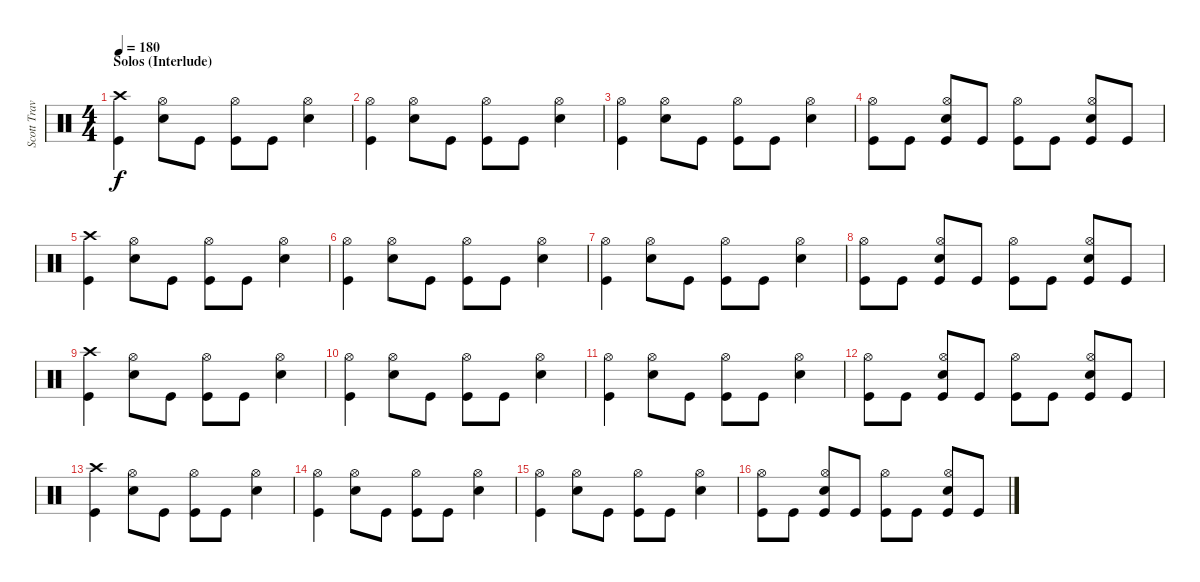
\track ("Scott Travis" "Scott Trav") {instrument percussion}
\staff {score}
\articulation defaults
\ts (4 4)
\section ("" "Solos (Interlude)")
\tempo 180
\clef neutral
\ks c
("Crash high (hit)" "Kick (hit)").4{dy f} ("Hi-Hat (open)" "Snare (hit) 2").8 "Kick (hit)".8 ("Hi-Hat (open)" "Kick (hit)").8 "Kick (hit)".8 ("Hi-Hat (open)" "Snare (hit) 2").4 |
("Hi-Hat (open)" "Kick (hit)").4 ("Hi-Hat (open)" "Snare (hit) 2").8 "Kick (hit)".8 ("Hi-Hat (open)" "Kick (hit)").8 "Kick (hit)".8 ("Hi-Hat (open)" "Snare (hit) 2").4 |
("Hi-Hat (open)" "Kick (hit)").4 ("Hi-Hat (open)" "Snare (hit) 2").8 "Kick (hit)".8 ("Hi-Hat (open)" "Kick (hit)").8 "Kick (hit)".8 ("Hi-Hat (open)" "Snare (hit) 2").4 |
("Hi-Hat (open)" "Kick (hit)").8 "Kick (hit)".8 ("Hi-Hat (open)" "Snare (hit) 2" "Kick (hit)").8 "Kick (hit)".8 ("Hi-Hat (open)" "Kick (hit)").8 "Kick (hit)".8 ("Hi-Hat (open)" "Snare (hit) 2" "Kick (hit)").8 "Kick (hit)".8 |
("Crash high (hit)" "Kick (hit)").4 ("Hi-Hat (open)" "Snare (hit) 2").8 "Kick (hit)".8 ("Hi-Hat (open)" "Kick (hit)").8 "Kick (hit)".8 ("Hi-Hat (open)" "Snare (hit) 2").4 |
("Hi-Hat (open)" "Kick (hit)").4 ("Hi-Hat (open)" "Snare (hit) 2").8 "Kick (hit)".8 ("Hi-Hat (open)" "Kick (hit)").8 "Kick (hit)".8 ("Hi-Hat (open)" "Snare (hit) 2").4 |
("Hi-Hat (open)" "Kick (hit)").4 ("Hi-Hat (open)" "Snare (hit) 2").8 "Kick (hit)".8 ("Hi-Hat (open)" "Kick (hit)").8 "Kick (hit)".8 ("Hi-Hat (open)" "Snare (hit) 2").4 |
("Hi-Hat (open)" "Kick (hit)").8 "Kick (hit)".8 ("Hi-Hat (open)" "Snare (hit) 2" "Kick (hit)").8 "Kick (hit)".8 ("Hi-Hat (open)" "Kick (hit)").8 "Kick (hit)".8 ("Hi-Hat (open)" "Snare (hit) 2" "Kick (hit)").8 "Kick (hit)".8 |
("Crash high (hit)" "Kick (hit)").4 ("Hi-Hat (open)" "Snare (hit) 2").8 "Kick (hit)".8 ("Hi-Hat (open)" "Kick (hit)").8 "Kick (hit)".8 ("Hi-Hat (open)" "Snare (hit) 2").4 |
("Hi-Hat (open)" "Kick (hit)").4 ("Hi-Hat (open)" "Snare (hit) 2").8 "Kick (hit)".8 ("Hi-Hat (open)" "Kick (hit)").8 "Kick (hit)".8 ("Hi-Hat (open)" "Snare (hit) 2").4 |
("Hi-Hat (open)" "Kick (hit)").4 ("Hi-Hat (open)" "Snare (hit) 2").8 "Kick (hit)".8 ("Hi-Hat (open)" "Kick (hit)").8 "Kick (hit)".8 ("Hi-Hat (open)" "Snare (hit) 2").4 |
("Hi-Hat (open)" "Kick (hit)").8 "Kick (hit)".8 ("Hi-Hat (open)" "Snare (hit) 2" "Kick (hit)").8 "Kick (hit)".8 ("Hi-Hat (open)" "Kick (hit)").8 "Kick (hit)".8 ("Hi-Hat (open)" "Snare (hit) 2" "Kick (hit)").8 "Kick (hit)".8 |
("Crash high (hit)" "Kick (hit)").4 ("Hi-Hat (open)" "Snare (hit) 2").8 "Kick (hit)".8 ("Hi-Hat (open)" "Kick (hit)").8 "Kick (hit)".8 ("Hi-Hat (open)" "Snare (hit) 2").4 |
("Hi-Hat (open)" "Kick (hit)").4 ("Hi-Hat (open)" "Snare (hit) 2").8 "Kick (hit)".8 ("Hi-Hat (open)" "Kick (hit)").8 "Kick (hit)".8 ("Hi-Hat (open)" "Snare (hit) 2").4 |
("Hi-Hat (open)" "Kick (hit)").4 ("Hi-Hat (open)" "Snare (hit) 2").8 "Kick (hit)".8 ("Hi-Hat (open)" "Kick (hit)").8 "Kick (hit)".8 ("Hi-Hat (open)" "Snare (hit) 2").4 |
("Hi-Hat (open)" "Kick (hit)").8 "Kick (hit)".8 ("Hi-Hat (open)" "Snare (hit) 2" "Kick (hit)").8 "Kick (hit)".8 ("Hi-Hat (open)" "Kick (hit)").8 "Kick (hit)".8 ("Hi-Hat (open)" "Snare (hit) 2" "Kick (hit)").8 "Kick (hit)".8
